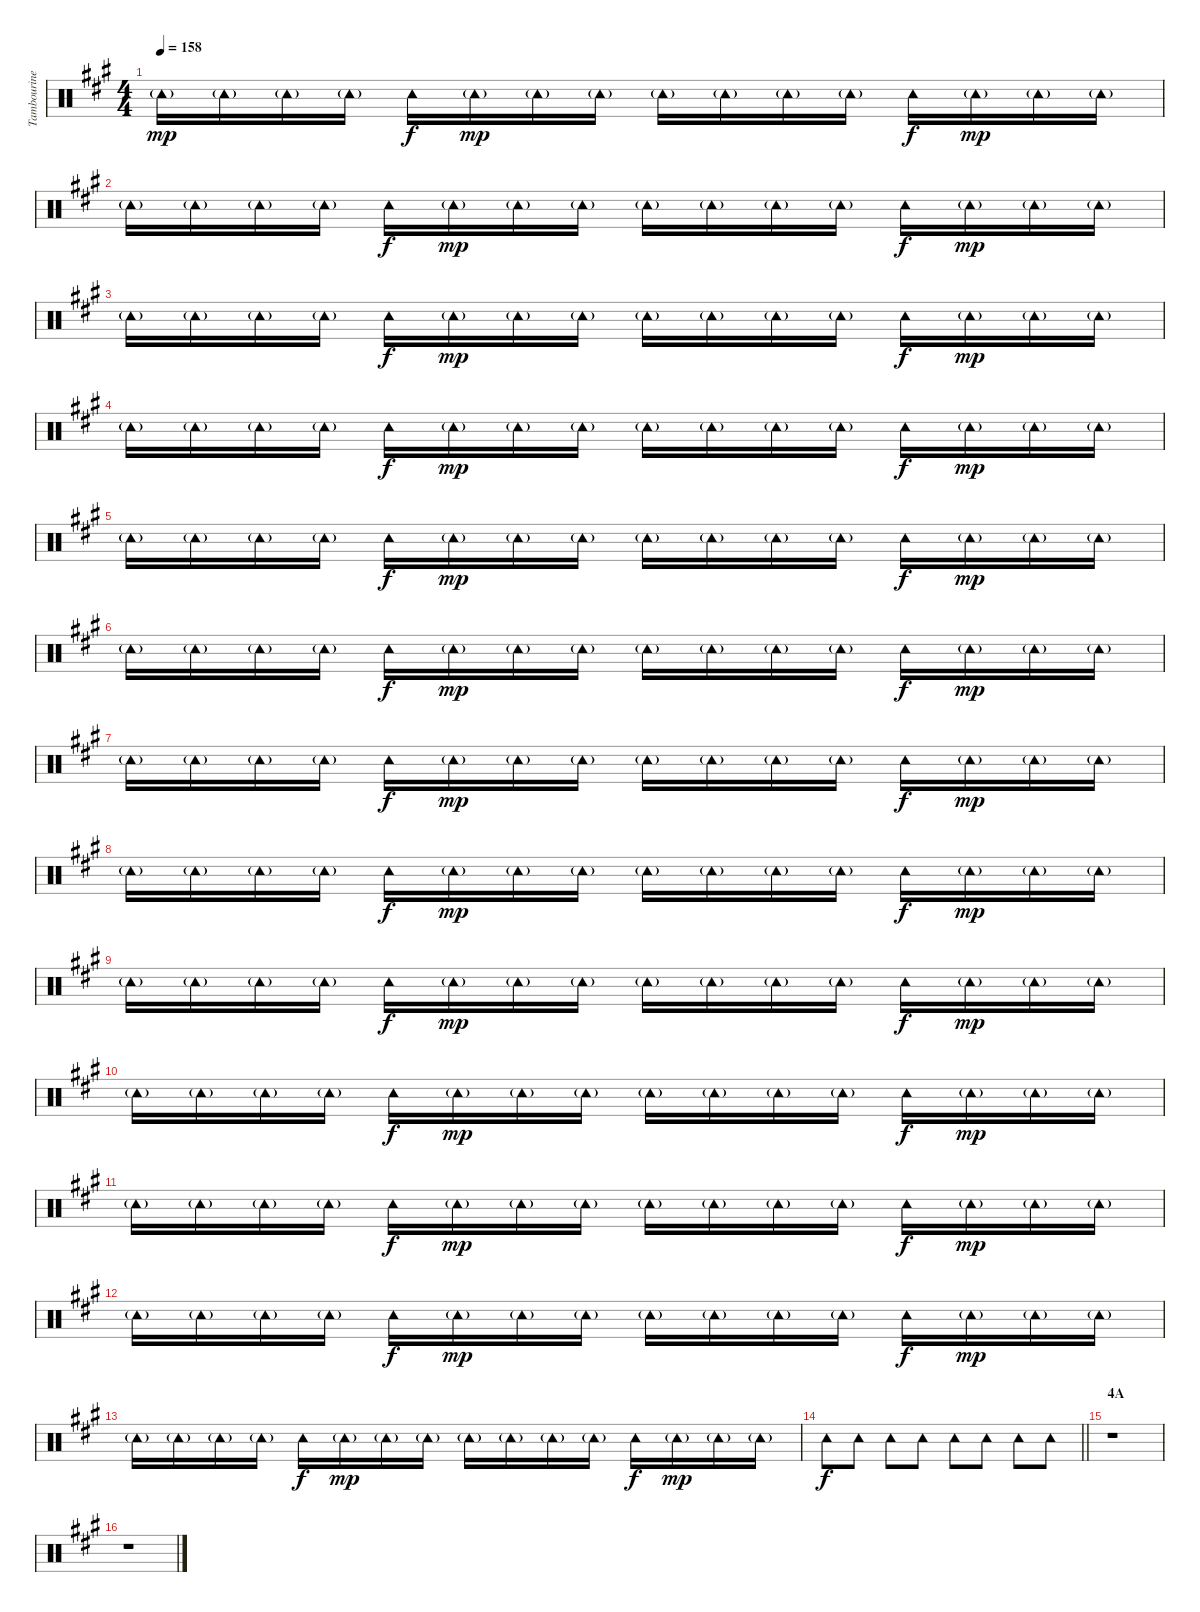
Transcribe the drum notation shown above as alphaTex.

\track ("Tambourine" "Tambourine") {instrument percussion}
\staff {score}
\articulation defaults
\ts (4 4)
\tempo 158
\clef neutral
\ks a "Tambourine (hit)"{g}.16{dy mp} "Tambourine (hit)"{g}.16 "Tambourine (hit)"{g}.16 "Tambourine (hit)"{g}.16 "Tambourine (hit)".16{dy f} "Tambourine (hit)"{g}.16{dy mp} "Tambourine (hit)"{g}.16 "Tambourine (hit)"{g}.16 "Tambourine (hit)"{g}.16 "Tambourine (hit)"{g}.16 "Tambourine (hit)"{g}.16 "Tambourine (hit)"{g}.16 "Tambourine (hit)".16{dy f} "Tambourine (hit)"{g}.16{dy mp} "Tambourine (hit)"{g}.16 "Tambourine (hit)"{g}.16
|
"Tambourine (hit)"{g}.16 "Tambourine (hit)"{g}.16 "Tambourine (hit)"{g}.16 "Tambourine (hit)"{g}.16 "Tambourine (hit)".16{dy f} "Tambourine (hit)"{g}.16{dy mp} "Tambourine (hit)"{g}.16 "Tambourine (hit)"{g}.16 "Tambourine (hit)"{g}.16 "Tambourine (hit)"{g}.16 "Tambourine (hit)"{g}.16 "Tambourine (hit)"{g}.16 "Tambourine (hit)".16{dy f} "Tambourine (hit)"{g}.16{dy mp} "Tambourine (hit)"{g}.16 "Tambourine (hit)"{g}.16 |
"Tambourine (hit)"{g}.16 "Tambourine (hit)"{g}.16 "Tambourine (hit)"{g}.16 "Tambourine (hit)"{g}.16 "Tambourine (hit)".16{dy f} "Tambourine (hit)"{g}.16{dy mp} "Tambourine (hit)"{g}.16 "Tambourine (hit)"{g}.16 "Tambourine (hit)"{g}.16 "Tambourine (hit)"{g}.16 "Tambourine (hit)"{g}.16 "Tambourine (hit)"{g}.16 "Tambourine (hit)".16{dy f} "Tambourine (hit)"{g}.16{dy mp} "Tambourine (hit)"{g}.16 "Tambourine (hit)"{g}.16 |
"Tambourine (hit)"{g}.16 "Tambourine (hit)"{g}.16 "Tambourine (hit)"{g}.16 "Tambourine (hit)"{g}.16 "Tambourine (hit)".16{dy f} "Tambourine (hit)"{g}.16{dy mp} "Tambourine (hit)"{g}.16 "Tambourine (hit)"{g}.16 "Tambourine (hit)"{g}.16 "Tambourine (hit)"{g}.16 "Tambourine (hit)"{g}.16 "Tambourine (hit)"{g}.16 "Tambourine (hit)".16{dy f} "Tambourine (hit)"{g}.16{dy mp} "Tambourine (hit)"{g}.16 "Tambourine (hit)"{g}.16 |
"Tambourine (hit)"{g}.16 "Tambourine (hit)"{g}.16 "Tambourine (hit)"{g}.16 "Tambourine (hit)"{g}.16 "Tambourine (hit)".16{dy f} "Tambourine (hit)"{g}.16{dy mp} "Tambourine (hit)"{g}.16 "Tambourine (hit)"{g}.16 "Tambourine (hit)"{g}.16 "Tambourine (hit)"{g}.16 "Tambourine (hit)"{g}.16 "Tambourine (hit)"{g}.16 "Tambourine (hit)".16{dy f} "Tambourine (hit)"{g}.16{dy mp} "Tambourine (hit)"{g}.16 "Tambourine (hit)"{g}.16 |
"Tambourine (hit)"{g}.16 "Tambourine (hit)"{g}.16 "Tambourine (hit)"{g}.16 "Tambourine (hit)"{g}.16 "Tambourine (hit)".16{dy f} "Tambourine (hit)"{g}.16{dy mp} "Tambourine (hit)"{g}.16 "Tambourine (hit)"{g}.16 "Tambourine (hit)"{g}.16 "Tambourine (hit)"{g}.16 "Tambourine (hit)"{g}.16 "Tambourine (hit)"{g}.16 "Tambourine (hit)".16{dy f} "Tambourine (hit)"{g}.16{dy mp} "Tambourine (hit)"{g}.16 "Tambourine (hit)"{g}.16 |
"Tambourine (hit)"{g}.16 "Tambourine (hit)"{g}.16 "Tambourine (hit)"{g}.16 "Tambourine (hit)"{g}.16 "Tambourine (hit)".16{dy f} "Tambourine (hit)"{g}.16{dy mp} "Tambourine (hit)"{g}.16 "Tambourine (hit)"{g}.16 "Tambourine (hit)"{g}.16 "Tambourine (hit)"{g}.16 "Tambourine (hit)"{g}.16 "Tambourine (hit)"{g}.16 "Tambourine (hit)".16{dy f} "Tambourine (hit)"{g}.16{dy mp} "Tambourine (hit)"{g}.16 "Tambourine (hit)"{g}.16 |
"Tambourine (hit)"{g}.16 "Tambourine (hit)"{g}.16 "Tambourine (hit)"{g}.16 "Tambourine (hit)"{g}.16 "Tambourine (hit)".16{dy f} "Tambourine (hit)"{g}.16{dy mp} "Tambourine (hit)"{g}.16 "Tambourine (hit)"{g}.16 "Tambourine (hit)"{g}.16 "Tambourine (hit)"{g}.16 "Tambourine (hit)"{g}.16 "Tambourine (hit)"{g}.16 "Tambourine (hit)".16{dy f} "Tambourine (hit)"{g}.16{dy mp} "Tambourine (hit)"{g}.16 "Tambourine (hit)"{g}.16 |
"Tambourine (hit)"{g}.16 "Tambourine (hit)"{g}.16 "Tambourine (hit)"{g}.16 "Tambourine (hit)"{g}.16 "Tambourine (hit)".16{dy f} "Tambourine (hit)"{g}.16{dy mp} "Tambourine (hit)"{g}.16 "Tambourine (hit)"{g}.16 "Tambourine (hit)"{g}.16 "Tambourine (hit)"{g}.16 "Tambourine (hit)"{g}.16 "Tambourine (hit)"{g}.16 "Tambourine (hit)".16{dy f} "Tambourine (hit)"{g}.16{dy mp} "Tambourine (hit)"{g}.16 "Tambourine (hit)"{g}.16 |
"Tambourine (hit)"{g}.16 "Tambourine (hit)"{g}.16 "Tambourine (hit)"{g}.16 "Tambourine (hit)"{g}.16 "Tambourine (hit)".16{dy f} "Tambourine (hit)"{g}.16{dy mp} "Tambourine (hit)"{g}.16 "Tambourine (hit)"{g}.16 "Tambourine (hit)"{g}.16 "Tambourine (hit)"{g}.16 "Tambourine (hit)"{g}.16 "Tambourine (hit)"{g}.16 "Tambourine (hit)".16{dy f} "Tambourine (hit)"{g}.16{dy mp} "Tambourine (hit)"{g}.16 "Tambourine (hit)"{g}.16 |
"Tambourine (hit)"{g}.16 "Tambourine (hit)"{g}.16 "Tambourine (hit)"{g}.16 "Tambourine (hit)"{g}.16 "Tambourine (hit)".16{dy f} "Tambourine (hit)"{g}.16{dy mp} "Tambourine (hit)"{g}.16 "Tambourine (hit)"{g}.16 "Tambourine (hit)"{g}.16 "Tambourine (hit)"{g}.16 "Tambourine (hit)"{g}.16 "Tambourine (hit)"{g}.16 "Tambourine (hit)".16{dy f} "Tambourine (hit)"{g}.16{dy mp} "Tambourine (hit)"{g}.16 "Tambourine (hit)"{g}.16 |
"Tambourine (hit)"{g}.16 "Tambourine (hit)"{g}.16 "Tambourine (hit)"{g}.16 "Tambourine (hit)"{g}.16 "Tambourine (hit)".16{dy f} "Tambourine (hit)"{g}.16{dy mp} "Tambourine (hit)"{g}.16 "Tambourine (hit)"{g}.16 "Tambourine (hit)"{g}.16 "Tambourine (hit)"{g}.16 "Tambourine (hit)"{g}.16 "Tambourine (hit)"{g}.16 "Tambourine (hit)".16{dy f} "Tambourine (hit)"{g}.16{dy mp} "Tambourine (hit)"{g}.16 "Tambourine (hit)"{g}.16 |
"Tambourine (hit)"{g}.16 "Tambourine (hit)"{g}.16 "Tambourine (hit)"{g}.16 "Tambourine (hit)"{g}.16 "Tambourine (hit)".16{dy f} "Tambourine (hit)"{g}.16{dy mp} "Tambourine (hit)"{g}.16 "Tambourine (hit)"{g}.16 "Tambourine (hit)"{g}.16 "Tambourine (hit)"{g}.16 "Tambourine (hit)"{g}.16 "Tambourine (hit)"{g}.16 "Tambourine (hit)".16{dy f} "Tambourine (hit)"{g}.16{dy mp} "Tambourine (hit)"{g}.16 "Tambourine (hit)"{g}.16 |
\barLineRight lightlight "Tambourine (hit)".8{dy f} "Tambourine (hit)".8 "Tambourine (hit)".8 "Tambourine (hit)".8 "Tambourine (hit)".8 "Tambourine (hit)".8 "Tambourine (hit)".8 "Tambourine (hit)".8
|
\section ("" "4A")
r.1 |
r.1
